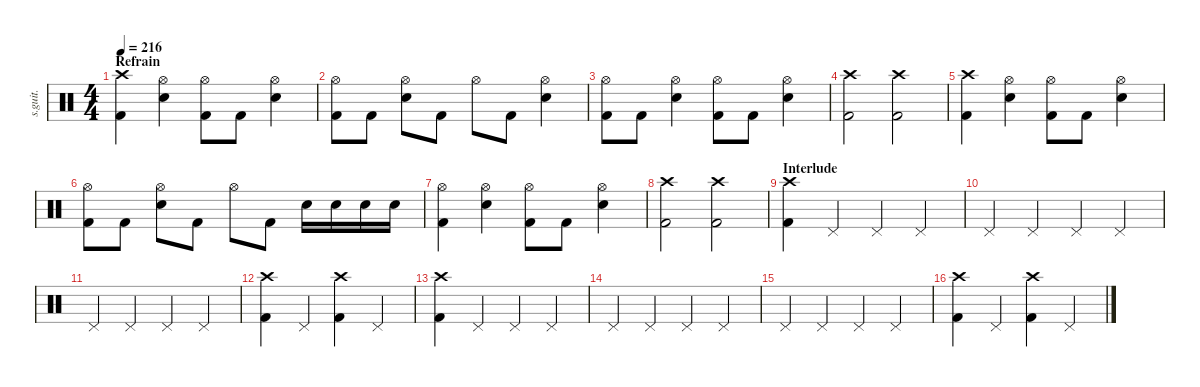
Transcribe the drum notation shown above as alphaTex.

\defaultSystemsLayout 4
\hideDynamics
\bracketExtendMode nobrackets
\track ("Jesus Bonehead | Drums" "s.guit.") {instrument percussion}
\staff {score}
\articulation defaults
\ts (4 4)
\section ("" "Refrain")
\tempo 216
\clef neutral
\ks c
("Crash high (hit)" "Kick (hit) 2").4{dy f} ("Hi-Hat (open)" "Snare (hit) 2").4 ("Hi-Hat (open)" "Kick (hit) 2").8 "Kick (hit) 2".8 ("Hi-Hat (open)" "Snare (hit) 2").4 |
("Hi-Hat (open)" "Kick (hit) 2").8 "Kick (hit) 2".8 ("Hi-Hat (open)" "Snare (hit) 2").8 "Kick (hit) 2".8 "Hi-Hat (open)".8 "Kick (hit) 2".8 ("Hi-Hat (open)" "Snare (hit) 2").4 |
("Hi-Hat (open)" "Kick (hit) 2").8 "Kick (hit) 2".8 ("Hi-Hat (open)" "Snare (hit) 2").4 ("Hi-Hat (open)" "Kick (hit) 2").8 "Kick (hit) 2".8 ("Hi-Hat (open)" "Snare (hit) 2").4 |
("Crash high (hit)" "Kick (hit) 2").2 ("Crash high (hit)" "Kick (hit) 2").2 |
("Crash high (hit)" "Kick (hit) 2").4 ("Hi-Hat (open)" "Snare (hit) 2").4 ("Hi-Hat (open)" "Kick (hit) 2").8 "Kick (hit) 2".8 ("Hi-Hat (open)" "Snare (hit) 2").4 |
("Hi-Hat (open)" "Kick (hit) 2").8 "Kick (hit) 2".8 ("Hi-Hat (open)" "Snare (hit) 2").8 "Kick (hit) 2".8 "Hi-Hat (open)".8 "Kick (hit) 2".8 "Snare (hit) 2".16 "Snare (hit) 2".16 "Snare (hit) 2".16 "Snare (hit) 2".16 |
("Hi-Hat (open)" "Kick (hit) 2").4 ("Hi-Hat (open)" "Snare (hit) 2").4 ("Hi-Hat (open)" "Kick (hit) 2").8 "Kick (hit) 2".8 ("Hi-Hat (open)" "Snare (hit) 2").4 |
("Crash high (hit)" "Kick (hit) 2").2 ("Crash high (hit)" "Kick (hit) 2").2 |
\section ("" "Interlude")
("Crash high (hit)" "Kick (hit) 2").4 "Pedal Hi-Hat (hit)".4 "Pedal Hi-Hat (hit)".4 "Pedal Hi-Hat (hit)".4 |
"Pedal Hi-Hat (hit)".4 "Pedal Hi-Hat (hit)".4 "Pedal Hi-Hat (hit)".4 "Pedal Hi-Hat (hit)".4 |
"Pedal Hi-Hat (hit)".4 "Pedal Hi-Hat (hit)".4 "Pedal Hi-Hat (hit)".4 "Pedal Hi-Hat (hit)".4 |
("Crash high (hit)" "Kick (hit) 2").4 "Pedal Hi-Hat (hit)".4 ("Crash high (hit)" "Kick (hit) 2").4 "Pedal Hi-Hat (hit)".4 |
("Crash high (hit)" "Kick (hit) 2").4 "Pedal Hi-Hat (hit)".4 "Pedal Hi-Hat (hit)".4 "Pedal Hi-Hat (hit)".4 |
"Pedal Hi-Hat (hit)".4 "Pedal Hi-Hat (hit)".4 "Pedal Hi-Hat (hit)".4 "Pedal Hi-Hat (hit)".4 |
"Pedal Hi-Hat (hit)".4 "Pedal Hi-Hat (hit)".4 "Pedal Hi-Hat (hit)".4 "Pedal Hi-Hat (hit)".4 |
("Crash high (hit)" "Kick (hit) 2").4 "Pedal Hi-Hat (hit)".4 ("Crash high (hit)" "Kick (hit) 2").4 "Pedal Hi-Hat (hit)".4
